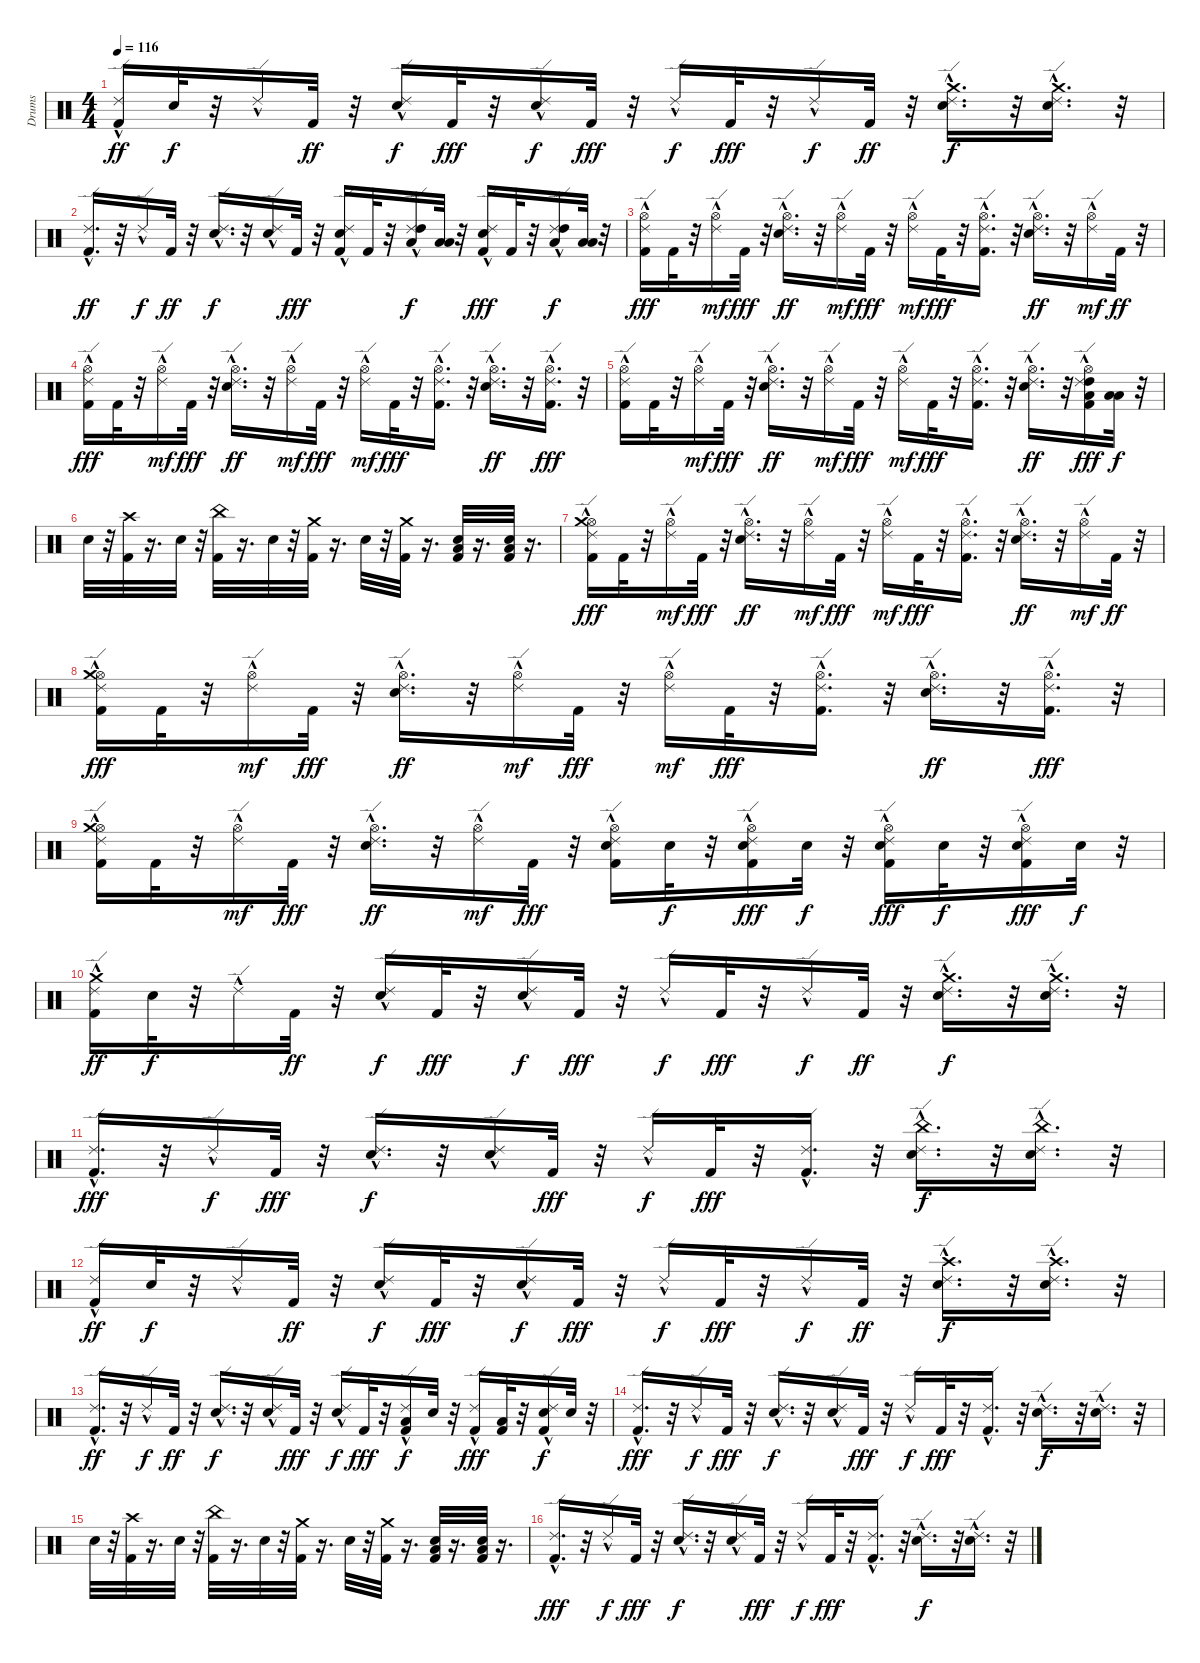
\track ("Drums" "Drums") {instrument percussion}
\staff {score}
\articulation defaults
\ts (4 4)
\tempo 116
\clef neutral
\ks c
("Kick (hit) 2"{hac} "Ride (edge) 2"{hac}).16{dy ff} "Electric Snare (hit)".32{dy f} r.32 "Ride (edge) 2"{hac}.16 "Kick (hit) 2".32{dy ff} r.32 ("Electric Snare (hit)" "Ride (edge) 2"{hac}).16{dy f} "Kick (hit) 2".32{dy fff} r.32 ("Electric Snare (hit)" "Ride (edge) 2"{hac}).16{dy f} "Kick (hit) 2".32{dy fff} r.32 "Ride (edge) 2"{hac}.16{dy f} "Kick (hit) 2".32{dy fff} r.32 "Ride (edge) 2"{hac}.16{dy f} "Kick (hit) 2".32{dy ff} r.32 ("Crash medium (hit)" "Electric Snare (hit)" "Ride (edge) 2"{hac}).16{d dy f} r.32 ("Crash medium (hit)" "Electric Snare (hit)" "Ride (edge) 2"{hac}).16{d} r.32 |
("Kick (hit) 2"{hac} "Ride (edge) 2"{hac}).16{d dy ff} r.32 "Ride (edge) 2"{hac}.16{dy f} "Kick (hit) 2".32{dy ff} r.32 ("Electric Snare (hit)" "Ride (edge) 2"{hac}).16{d dy f} r.32 ("Electric Snare (hit)" "Ride (edge) 2"{hac}).16 "Kick (hit) 2".32{dy fff} r.32 ("Ride (edge) 2"{hac} "Kick (hit) 2" "Electric Snare (hit)").16 "Kick (hit) 2".32 r.32 ("Ride (edge) 2"{hac} "Low Tom (hit)" "High Tom (hit)").16{dy f} ("Low Floor Tom (hit)" "Low Tom (hit)").32 r.32 ("Ride (edge) 2"{hac} "Kick (hit) 2" "Electric Snare (hit)").16{dy fff} "Kick (hit) 2".32 r.32 ("Ride (edge) 2"{hac} "Low Tom (hit)" "High Tom (hit)").16{dy f} ("Low Floor Tom (hit)" "Low Tom (hit)").32 r.32 |
("Hi-Hat (open)" "Ride (edge) 2"{hac} "Kick (hit) 2").16{dy fff} "Kick (hit) 2".32 r.32 ("Hi-Hat (open)" "Ride (edge) 2"{hac}).16{dy mf} "Kick (hit) 2".32{dy fff} r.32 ("Hi-Hat (open)" "Ride (edge) 2"{hac} "Electric Snare (hit)").16{d dy ff} r.32 ("Hi-Hat (open)" "Ride (edge) 2"{hac}).16{dy mf} "Kick (hit) 2".32{dy fff} r.32 ("Hi-Hat (open)" "Ride (edge) 2"{hac}).16{dy mf} "Kick (hit) 2".32{dy fff} r.32 ("Hi-Hat (open)" "Ride (edge) 2"{hac} "Kick (hit) 2").16{d} r.32 ("Hi-Hat (open)" "Ride (edge) 2"{hac} "Electric Snare (hit)").16{d dy ff} r.32 ("Hi-Hat (open)" "Ride (edge) 2"{hac}).16{dy mf} "Kick (hit) 2".32{dy ff} r.32 |
("Hi-Hat (open)" "Ride (edge) 2"{hac} "Kick (hit) 2").16{dy fff} "Kick (hit) 2".32 r.32 ("Hi-Hat (open)" "Ride (edge) 2"{hac}).16{dy mf} "Kick (hit) 2".32{dy fff} r.32 ("Hi-Hat (open)" "Ride (edge) 2"{hac} "Electric Snare (hit)").16{d dy ff} r.32 ("Hi-Hat (open)" "Ride (edge) 2"{hac}).16{dy mf} "Kick (hit) 2".32{dy fff} r.32 ("Hi-Hat (open)" "Ride (edge) 2"{hac}).16{dy mf} "Kick (hit) 2".32{dy fff} r.32 ("Hi-Hat (open)" "Ride (edge) 2"{hac} "Kick (hit) 2").16{d} r.32 ("Hi-Hat (open)" "Ride (edge) 2"{hac} "Electric Snare (hit)").16{d dy ff} r.32 ("Hi-Hat (open)" "Kick (hit) 2" "Ride (edge) 2"{hac}).16{d dy fff} r.32 |
("Hi-Hat (open)" "Ride (edge) 2"{hac} "Kick (hit) 2").16 "Kick (hit) 2".32 r.32 ("Hi-Hat (open)" "Ride (edge) 2"{hac}).16{dy mf} "Kick (hit) 2".32{dy fff} r.32 ("Hi-Hat (open)" "Ride (edge) 2"{hac} "Electric Snare (hit)").16{d dy ff} r.32 ("Hi-Hat (open)" "Ride (edge) 2"{hac}).16{dy mf} "Kick (hit) 2".32{dy fff} r.32 ("Hi-Hat (open)" "Ride (edge) 2"{hac}).16{dy mf} "Kick (hit) 2".32{dy fff} r.32 ("Hi-Hat (open)" "Ride (edge) 2"{hac} "Kick (hit) 2").16{d} r.32 ("Hi-Hat (open)" "Ride (edge) 2"{hac} "Electric Snare (hit)").16{d dy ff} r.32 ("Hi-Hat (open)" "Low Tom (hit)" "High Tom (hit)" "Kick (hit) 2" "Ride (edge) 2"{hac}).16{dy fff} ("Low Floor Tom (hit)" "Low Tom (hit)").32{dy f} r.32 |
"Electric Snare (hit)".32 r.32 ("Crash high (hit)" "Kick (hit) 2").32 r.16{d} "Electric Snare (hit)".32 r.32 ("China (hit)" "Kick (hit) 2").32 r.16{d} "Electric Snare (hit)".32 r.32 ("Crash medium (hit)" "Kick (hit) 2").32 r.16{d} "Electric Snare (hit)".32 r.32 ("Crash medium (hit)" "Kick (hit) 2").32 r.16{d} ("Low Tom (hit)" "Kick (hit) 2" "Electric Snare (hit)").32 r.16{d} ("Low Tom (hit)" "Kick (hit) 2" "Electric Snare (hit)").32 r.16{d} |
("Hi-Hat (open)" "Ride (edge) 2"{hac} "Kick (hit) 2" "Crash medium (hit)").16{dy fff} "Kick (hit) 2".32 r.32 ("Hi-Hat (open)" "Ride (edge) 2"{hac}).16{dy mf} "Kick (hit) 2".32{dy fff} r.32 ("Hi-Hat (open)" "Ride (edge) 2"{hac} "Electric Snare (hit)").16{d dy ff} r.32 ("Hi-Hat (open)" "Ride (edge) 2"{hac}).16{dy mf} "Kick (hit) 2".32{dy fff} r.32 ("Hi-Hat (open)" "Ride (edge) 2"{hac}).16{dy mf} "Kick (hit) 2".32{dy fff} r.32 ("Hi-Hat (open)" "Ride (edge) 2"{hac} "Kick (hit) 2").16{d} r.32 ("Hi-Hat (open)" "Ride (edge) 2"{hac} "Electric Snare (hit)").16{d dy ff} r.32 ("Hi-Hat (open)" "Ride (edge) 2"{hac}).16{dy mf} "Kick (hit) 2".32{dy ff} r.32 |
("Hi-Hat (open)" "Crash medium (hit)" "Ride (edge) 2"{hac} "Kick (hit) 2").16{dy fff} "Kick (hit) 2".32 r.32 ("Hi-Hat (open)" "Ride (edge) 2"{hac}).16{dy mf} "Kick (hit) 2".32{dy fff} r.32 ("Hi-Hat (open)" "Ride (edge) 2"{hac} "Electric Snare (hit)").16{d dy ff} r.32 ("Hi-Hat (open)" "Ride (edge) 2"{hac}).16{dy mf} "Kick (hit) 2".32{dy fff} r.32 ("Hi-Hat (open)" "Ride (edge) 2"{hac}).16{dy mf} "Kick (hit) 2".32{dy fff} r.32 ("Hi-Hat (open)" "Ride (edge) 2"{hac} "Kick (hit) 2").16{d} r.32 ("Hi-Hat (open)" "Ride (edge) 2"{hac} "Electric Snare (hit)").16{d dy ff} r.32 ("Hi-Hat (open)" "Kick (hit) 2" "Ride (edge) 2"{hac}).16{d dy fff} r.32 |
("Hi-Hat (open)" "Crash medium (hit)" "Ride (edge) 2"{hac} "Kick (hit) 2").16 "Kick (hit) 2".32 r.32 ("Hi-Hat (open)" "Ride (edge) 2"{hac}).16{dy mf} "Kick (hit) 2".32{dy fff} r.32 ("Hi-Hat (open)" "Ride (edge) 2"{hac} "Electric Snare (hit)").16{d dy ff} r.32 ("Hi-Hat (open)" "Ride (edge) 2"{hac}).16{dy mf} "Kick (hit) 2".32{dy fff} r.32 ("Hi-Hat (open)" "Kick (hit) 2" "Electric Snare (hit)" "Ride (edge) 2"{hac}).16 "Electric Snare (hit)".32{dy f} r.32 ("Hi-Hat (open)" "Electric Snare (hit)" "Ride (edge) 2"{hac} "Kick (hit) 2").16{dy fff} "Electric Snare (hit)".32{dy f} r.32 ("Hi-Hat (open)" "Kick (hit) 2" "Electric Snare (hit)" "Ride (edge) 2"{hac}).16{dy fff} "Electric Snare (hit)".32{dy f} r.32 ("Hi-Hat (open)" "Electric Snare (hit)" "Kick (hit) 2" "Ride (edge) 2"{hac}).16{dy fff} "Electric Snare (hit)".32{dy f} r.32 |
("Crash medium (hit)" "Kick (hit) 2"{hac} "Ride (edge) 2"{hac}).16{dy ff} "Electric Snare (hit)".32{dy f} r.32 "Ride (edge) 2"{hac}.16 "Kick (hit) 2".32{dy ff} r.32 ("Electric Snare (hit)" "Ride (edge) 2"{hac}).16{dy f} "Kick (hit) 2".32{dy fff} r.32 ("Electric Snare (hit)" "Ride (edge) 2"{hac}).16{dy f} "Kick (hit) 2".32{dy fff} r.32 "Ride (edge) 2"{hac}.16{dy f} "Kick (hit) 2".32{dy fff} r.32 "Ride (edge) 2"{hac}.16{dy f} "Kick (hit) 2".32{dy ff} r.32 ("Crash medium (hit)" "Electric Snare (hit)" "Ride (edge) 2"{hac}).16{d dy f} r.32 ("Crash medium (hit)" "Electric Snare (hit)" "Ride (edge) 2"{hac}).16{d} r.32 |
("Kick (hit) 2" "Ride (edge) 2"{hac}).16{d dy fff} r.32 "Ride (edge) 2"{hac}.16{dy f} "Kick (hit) 2".32{dy fff} r.32 ("Electric Snare (hit)" "Ride (edge) 2"{hac}).16{d dy f} r.32 ("Electric Snare (hit)" "Ride (edge) 2"{hac}).16 "Kick (hit) 2".32{dy fff} r.32 "Ride (edge) 2"{hac}.16{dy f} "Kick (hit) 2".32{dy fff} r.32 ("Kick (hit) 2" "Ride (edge) 2"{hac}).16{d} r.32 ("China (hit)" "Electric Snare (hit)" "Ride (edge) 2"{hac}).16{d dy f} r.32 ("China (hit)" "Electric Snare (hit)" "Ride (edge) 2"{hac}).16{d} r.32 |
("Kick (hit) 2"{hac} "Ride (edge) 2"{hac}).16{dy ff} "Electric Snare (hit)".32{dy f} r.32 "Ride (edge) 2"{hac}.16 "Kick (hit) 2".32{dy ff} r.32 ("Electric Snare (hit)" "Ride (edge) 2"{hac}).16{dy f} "Kick (hit) 2".32{dy fff} r.32 ("Electric Snare (hit)" "Ride (edge) 2"{hac}).16{dy f} "Kick (hit) 2".32{dy fff} r.32 "Ride (edge) 2"{hac}.16{dy f} "Kick (hit) 2".32{dy fff} r.32 "Ride (edge) 2"{hac}.16{dy f} "Kick (hit) 2".32{dy ff} r.32 ("Crash high (hit)" "Electric Snare (hit)" "Ride (edge) 2"{hac}).16{d dy f} r.32 ("Crash high (hit)" "Electric Snare (hit)" "Ride (edge) 2"{hac}).16{d} r.32 |
("Kick (hit) 2"{hac} "Ride (edge) 2"{hac}).16{d dy ff} r.32 "Ride (edge) 2"{hac}.16{dy f} "Kick (hit) 2".32{dy ff} r.32 ("Electric Snare (hit)" "Ride (edge) 2"{hac}).16{d dy f} r.32 ("Electric Snare (hit)" "Ride (edge) 2"{hac}).16 "Kick (hit) 2".32{dy fff} r.32 ("Ride (edge) 2"{hac} "Electric Snare (hit)").16{dy f} "Kick (hit) 2".32{dy fff} r.32 ("Low Tom (hit)" "Kick (hit) 2" "Ride (edge) 2"{hac}).16{dy f} "Electric Snare (hit)".32 r.32 ("Ride (edge) 2"{hac} "Kick (hit) 2").16{dy fff} ("Low Floor Tom (hit)" "Kick (hit) 2").32 r.32 ("Kick (hit) 2" "Electric Snare (hit)" "Ride (edge) 2"{hac}).16{dy f} "Electric Snare (hit)".32 r.32 |
("Kick (hit) 2" "Ride (edge) 2"{hac}).16{d dy fff} r.32 "Ride (edge) 2"{hac}.16{dy f} "Kick (hit) 2".32{dy fff} r.32 ("Electric Snare (hit)" "Ride (edge) 2"{hac}).16{d dy f} r.32 ("Electric Snare (hit)" "Ride (edge) 2"{hac}).16 "Kick (hit) 2".32{dy fff} r.32 "Ride (edge) 2"{hac}.16{dy f} "Kick (hit) 2".32{dy fff} r.32 ("Kick (hit) 2" "Ride (edge) 2"{hac}).16{d} r.32 ("Electric Snare (hit)" "Ride (edge) 2"{hac}).16{d dy f} r.32 ("Electric Snare (hit)" "Ride (edge) 2"{hac}).16{d} r.32 |
"Electric Snare (hit)".32 r.32 ("Crash high (hit)" "Kick (hit) 2").32 r.16{d} "Electric Snare (hit)".32 r.32 ("China (hit)" "Kick (hit) 2").32 r.16{d} "Electric Snare (hit)".32 r.32 ("Crash medium (hit)" "Kick (hit) 2").32 r.16{d} "Electric Snare (hit)".32 r.32 ("Crash medium (hit)" "Kick (hit) 2").32 r.16{d} ("Low Tom (hit)" "Kick (hit) 2" "Electric Snare (hit)").32 r.16{d} ("Low Tom (hit)" "Kick (hit) 2" "Electric Snare (hit)").32 r.16{d} |
("Kick (hit) 2" "Ride (edge) 2"{hac}).16{d dy fff} r.32 "Ride (edge) 2"{hac}.16{dy f} "Kick (hit) 2".32{dy fff} r.32 ("Electric Snare (hit)" "Ride (edge) 2"{hac}).16{d dy f} r.32 ("Electric Snare (hit)" "Ride (edge) 2"{hac}).16 "Kick (hit) 2".32{dy fff} r.32 "Ride (edge) 2"{hac}.16{dy f} "Kick (hit) 2".32{dy fff} r.32 ("Kick (hit) 2" "Ride (edge) 2"{hac}).16{d} r.32 ("Electric Snare (hit)" "Ride (edge) 2"{hac}).16{d dy f} r.32 ("Electric Snare (hit)" "Ride (edge) 2"{hac}).16{d} r.32
